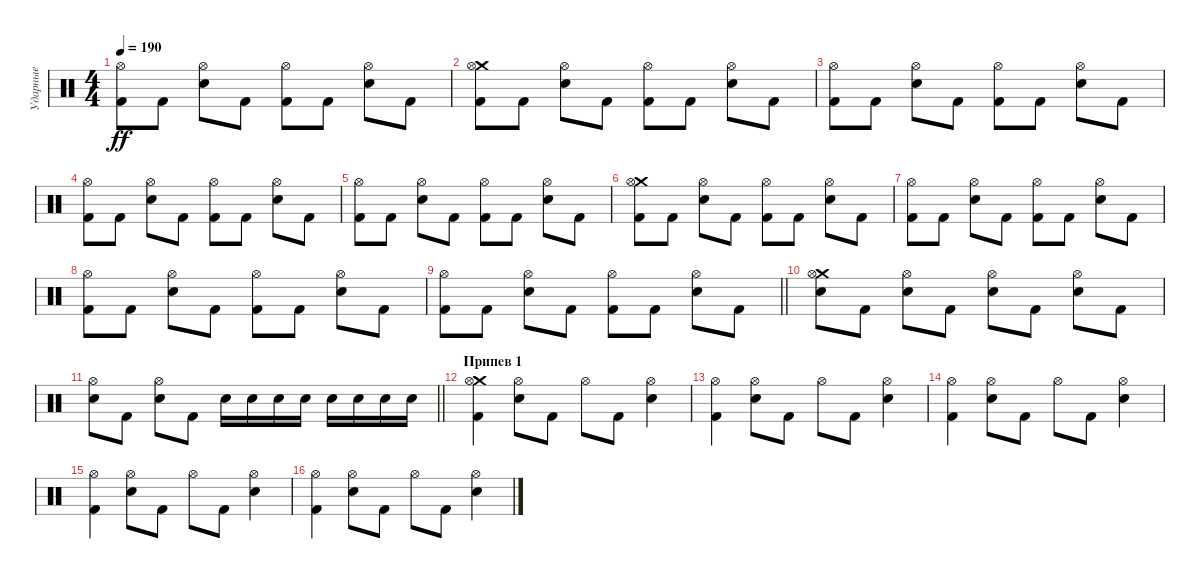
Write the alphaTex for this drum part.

\track ("Ударные" "Ударные") {instrument percussion}
\staff {score}
\articulation defaults
\ts (4 4)
\tempo 190
\clef neutral
\ks c
("Kick (hit) 2" "Hi-Hat (open)").8{dy ff} "Kick (hit) 2".8 ("Electric Snare (hit)" "Hi-Hat (open)").8 "Kick (hit) 2".8 ("Kick (hit) 2" "Hi-Hat (open)").8 "Kick (hit) 2".8 ("Electric Snare (hit)" "Hi-Hat (open)").8 "Kick (hit) 2".8 |
("Crash medium (hit)" "Kick (hit) 2" "Hi-Hat (open)").8 "Kick (hit) 2".8 ("Electric Snare (hit)" "Hi-Hat (open)").8 "Kick (hit) 2".8 ("Kick (hit) 2" "Hi-Hat (open)").8 "Kick (hit) 2".8 ("Electric Snare (hit)" "Hi-Hat (open)").8 "Kick (hit) 2".8 |
("Kick (hit) 2" "Hi-Hat (open)").8 "Kick (hit) 2".8 ("Electric Snare (hit)" "Hi-Hat (open)").8 "Kick (hit) 2".8 ("Kick (hit) 2" "Hi-Hat (open)").8 "Kick (hit) 2".8 ("Electric Snare (hit)" "Hi-Hat (open)").8 "Kick (hit) 2".8 |
("Kick (hit) 2" "Hi-Hat (open)").8 "Kick (hit) 2".8 ("Electric Snare (hit)" "Hi-Hat (open)").8 "Kick (hit) 2".8 ("Kick (hit) 2" "Hi-Hat (open)").8 "Kick (hit) 2".8 ("Electric Snare (hit)" "Hi-Hat (open)").8 "Kick (hit) 2".8 |
("Kick (hit) 2" "Hi-Hat (open)").8 "Kick (hit) 2".8 ("Electric Snare (hit)" "Hi-Hat (open)").8 "Kick (hit) 2".8 ("Kick (hit) 2" "Hi-Hat (open)").8 "Kick (hit) 2".8 ("Electric Snare (hit)" "Hi-Hat (open)").8 "Kick (hit) 2".8 |
("Crash medium (hit)" "Kick (hit) 2" "Hi-Hat (open)").8 "Kick (hit) 2".8 ("Electric Snare (hit)" "Hi-Hat (open)").8 "Kick (hit) 2".8 ("Kick (hit) 2" "Hi-Hat (open)").8 "Kick (hit) 2".8 ("Electric Snare (hit)" "Hi-Hat (open)").8 "Kick (hit) 2".8 |
("Kick (hit) 2" "Hi-Hat (open)").8 "Kick (hit) 2".8 ("Electric Snare (hit)" "Hi-Hat (open)").8 "Kick (hit) 2".8 ("Kick (hit) 2" "Hi-Hat (open)").8 "Kick (hit) 2".8 ("Electric Snare (hit)" "Hi-Hat (open)").8 "Kick (hit) 2".8 |
("Kick (hit) 2" "Hi-Hat (open)").8 "Kick (hit) 2".8 ("Electric Snare (hit)" "Hi-Hat (open)").8 "Kick (hit) 2".8 ("Kick (hit) 2" "Hi-Hat (open)").8 "Kick (hit) 2".8 ("Electric Snare (hit)" "Hi-Hat (open)").8 "Kick (hit) 2".8 |
\barLineRight lightlight
("Kick (hit) 2" "Hi-Hat (open)").8 "Kick (hit) 2".8 ("Electric Snare (hit)" "Hi-Hat (open)").8 "Kick (hit) 2".8 ("Kick (hit) 2" "Hi-Hat (open)").8 "Kick (hit) 2".8 ("Electric Snare (hit)" "Hi-Hat (open)").8 "Kick (hit) 2".8 |
("Crash medium (hit)" "Electric Snare (hit)" "Hi-Hat (open)").8 "Kick (hit) 2".8 ("Electric Snare (hit)" "Hi-Hat (open)").8 "Kick (hit) 2".8 ("Electric Snare (hit)" "Hi-Hat (open)").8 "Kick (hit) 2".8 ("Electric Snare (hit)" "Hi-Hat (open)").8 "Kick (hit) 2".8 |
\barLineRight lightlight
("Electric Snare (hit)" "Hi-Hat (open)").8 "Kick (hit) 2".8 ("Electric Snare (hit)" "Hi-Hat (open)").8 "Kick (hit) 2".8 "Electric Snare (hit)".16 "Electric Snare (hit)".16 "Electric Snare (hit)".16 "Electric Snare (hit)".16 "Electric Snare (hit)".16 "Electric Snare (hit)".16 "Electric Snare (hit)".16 "Electric Snare (hit)".16 |
\section ("" "Припев 1")
("Crash medium (hit)" "Kick (hit) 2" "Hi-Hat (open)").4 ("Electric Snare (hit)" "Hi-Hat (open)").8 "Kick (hit) 2".8 "Hi-Hat (open)".8 "Kick (hit) 2".8 ("Electric Snare (hit)" "Hi-Hat (open)").4 |
("Kick (hit) 2" "Hi-Hat (open)").4 ("Electric Snare (hit)" "Hi-Hat (open)").8 "Kick (hit) 2".8 "Hi-Hat (open)".8 "Kick (hit) 2".8 ("Electric Snare (hit)" "Hi-Hat (open)").4 |
("Kick (hit) 2" "Hi-Hat (open)").4 ("Electric Snare (hit)" "Hi-Hat (open)").8 "Kick (hit) 2".8 "Hi-Hat (open)".8 "Kick (hit) 2".8 ("Electric Snare (hit)" "Hi-Hat (open)").4 |
("Kick (hit) 2" "Hi-Hat (open)").4 ("Electric Snare (hit)" "Hi-Hat (open)").8 "Kick (hit) 2".8 "Hi-Hat (open)".8 "Kick (hit) 2".8 ("Electric Snare (hit)" "Hi-Hat (open)").4 |
("Kick (hit) 2" "Hi-Hat (open)").4 ("Electric Snare (hit)" "Hi-Hat (open)").8 "Kick (hit) 2".8 "Hi-Hat (open)".8 "Kick (hit) 2".8 ("Electric Snare (hit)" "Hi-Hat (open)").4
